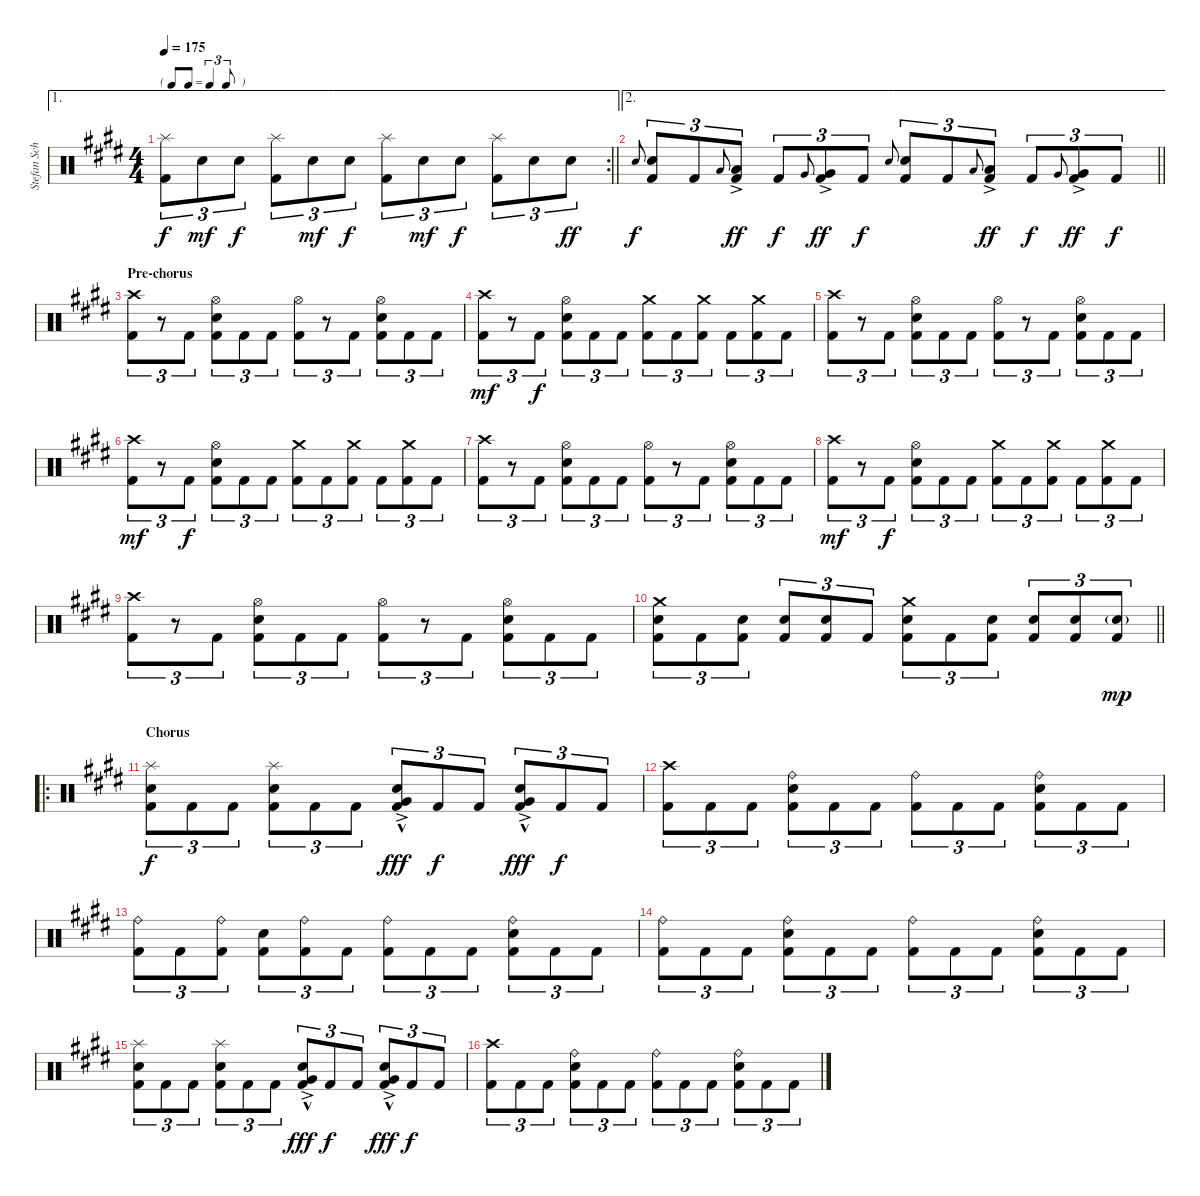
\track ("Stefan Schwarzmann" "Stefan Sch") {instrument percussion}
\staff {score}
\articulation defaults
\ae 1
\rc 2
\ts (4 4)
\tf triplet8th
\tempo 175
\clef neutral
\barLineRight lightlight
\ks c#minor
("Splash (hit)" "Kick (hit) 2").8{tu (3 2) dy f} "Snare (hit) 2".8{tu (3 2) dy mf} "Snare (hit) 2".8{tu (3 2) dy f} ("Splash (hit)" "Kick (hit) 2").8{tu (3 2)} "Snare (hit) 2".8{tu (3 2) dy mf} "Snare (hit) 2".8{tu (3 2) dy f} ("Splash (hit)" "Kick (hit) 2").8{tu (3 2)} "Snare (hit) 2".8{tu (3 2) dy mf} "Snare (hit) 2".8{tu (3 2) dy f} ("Splash (hit)" "Kick (hit) 2").8{tu (3 2)} "Snare (hit) 2".8{tu (3 2)} "Snare (hit) 2".8{tu (3 2) dy ff} |
\ae 2
\barLineRight lightlight "Snare (hit) 2".8{gr onbeat dy f}
("Snare (hit) 2" "Kick (hit) 2").8{tu (3 2)} "Kick (hit) 2".8{tu (3 2)} "Low Tom (hit)".8{gr onbeat} ("Low Tom (hit)"{ac} "Kick (hit) 2").8{tu (3 2) dy ff} "Kick (hit) 2".8{tu (3 2) dy f} "Very Low Tom (hit)".8{gr onbeat} ("Very Low Tom (hit)"{ac} "Kick (hit) 2").8{tu (3 2) dy ff} "Kick (hit) 2".8{tu (3 2) dy f} "Snare (hit) 2".8{gr onbeat} ("Snare (hit) 2" "Kick (hit) 2").8{tu (3 2)} "Kick (hit) 2".8{tu (3 2)} "Low Tom (hit)".8{gr onbeat} ("Low Tom (hit)"{ac} "Kick (hit) 2").8{tu (3 2) dy ff} "Kick (hit) 2".8{tu (3 2) dy f} "Very Low Tom (hit)".8{gr onbeat} ("Very Low Tom (hit)"{ac} "Kick (hit) 2").8{tu (3 2) dy ff} "Kick (hit) 2".8{tu (3 2) dy f} |
\section ("" "Pre-chorus")
("Crash high (hit)" "Kick (hit) 2").8{tu (3 2)} r.8{tu (3 2)} "Kick (hit) 2".8{tu (3 2)} ("Hi-Hat (open)" "Snare (hit) 2" "Kick (hit) 2").8{tu (3 2)} "Kick (hit) 2".8{tu (3 2)} "Kick (hit) 2".8{tu (3 2)} ("Hi-Hat (open)" "Kick (hit) 2").8{tu (3 2)} r.8{tu (3 2)} "Kick (hit) 2".8{tu (3 2)} ("Hi-Hat (open)" "Snare (hit) 2" "Kick (hit) 2").8{tu (3 2)} "Kick (hit) 2".8{tu (3 2)} "Kick (hit) 2".8{tu (3 2)} |
("Crash high (hit)" "Kick (hit) 2").8{tu (3 2) dy mf} r.8{tu (3 2)} "Kick (hit) 2".8{tu (3 2) dy f} ("Hi-Hat (open)" "Snare (hit) 2" "Kick (hit) 2").8{tu (3 2)} "Kick (hit) 2".8{tu (3 2)} "Kick (hit) 2".8{tu (3 2)} ("Crash medium (hit)" "Kick (hit) 2").8{tu (3 2)} "Kick (hit) 2".8{tu (3 2)} ("Crash medium (hit)" "Kick (hit) 2").8{tu (3 2)} "Kick (hit) 2".8{tu (3 2)} ("Crash medium (hit)" "Kick (hit) 2").8{tu (3 2)} "Kick (hit) 2".8{tu (3 2)} |
("Crash high (hit)" "Kick (hit) 2").8{tu (3 2)} r.8{tu (3 2)} "Kick (hit) 2".8{tu (3 2)} ("Hi-Hat (open)" "Snare (hit) 2" "Kick (hit) 2").8{tu (3 2)} "Kick (hit) 2".8{tu (3 2)} "Kick (hit) 2".8{tu (3 2)} ("Hi-Hat (open)" "Kick (hit) 2").8{tu (3 2)} r.8{tu (3 2)} "Kick (hit) 2".8{tu (3 2)} ("Hi-Hat (open)" "Snare (hit) 2" "Kick (hit) 2").8{tu (3 2)} "Kick (hit) 2".8{tu (3 2)} "Kick (hit) 2".8{tu (3 2)} |
("Crash high (hit)" "Kick (hit) 2").8{tu (3 2) dy mf} r.8{tu (3 2)} "Kick (hit) 2".8{tu (3 2) dy f} ("Hi-Hat (open)" "Snare (hit) 2" "Kick (hit) 2").8{tu (3 2)} "Kick (hit) 2".8{tu (3 2)} "Kick (hit) 2".8{tu (3 2)} ("Crash medium (hit)" "Kick (hit) 2").8{tu (3 2)} "Kick (hit) 2".8{tu (3 2)} ("Crash medium (hit)" "Kick (hit) 2").8{tu (3 2)} "Kick (hit) 2".8{tu (3 2)} ("Crash medium (hit)" "Kick (hit) 2").8{tu (3 2)} "Kick (hit) 2".8{tu (3 2)} |
("Crash high (hit)" "Kick (hit) 2").8{tu (3 2)} r.8{tu (3 2)} "Kick (hit) 2".8{tu (3 2)} ("Hi-Hat (open)" "Snare (hit) 2" "Kick (hit) 2").8{tu (3 2)} "Kick (hit) 2".8{tu (3 2)} "Kick (hit) 2".8{tu (3 2)} ("Hi-Hat (open)" "Kick (hit) 2").8{tu (3 2)} r.8{tu (3 2)} "Kick (hit) 2".8{tu (3 2)} ("Hi-Hat (open)" "Snare (hit) 2" "Kick (hit) 2").8{tu (3 2)} "Kick (hit) 2".8{tu (3 2)} "Kick (hit) 2".8{tu (3 2)} |
("Crash high (hit)" "Kick (hit) 2").8{tu (3 2) dy mf} r.8{tu (3 2)} "Kick (hit) 2".8{tu (3 2) dy f} ("Hi-Hat (open)" "Snare (hit) 2" "Kick (hit) 2").8{tu (3 2)} "Kick (hit) 2".8{tu (3 2)} "Kick (hit) 2".8{tu (3 2)} ("Crash medium (hit)" "Kick (hit) 2").8{tu (3 2)} "Kick (hit) 2".8{tu (3 2)} ("Crash medium (hit)" "Kick (hit) 2").8{tu (3 2)} "Kick (hit) 2".8{tu (3 2)} ("Crash medium (hit)" "Kick (hit) 2").8{tu (3 2)} "Kick (hit) 2".8{tu (3 2)} |
("Crash high (hit)" "Kick (hit) 2").8{tu (3 2)} r.8{tu (3 2)} "Kick (hit) 2".8{tu (3 2)} ("Hi-Hat (open)" "Snare (hit) 2" "Kick (hit) 2").8{tu (3 2)} "Kick (hit) 2".8{tu (3 2)} "Kick (hit) 2".8{tu (3 2)} ("Hi-Hat (open)" "Kick (hit) 2").8{tu (3 2)} r.8{tu (3 2)} "Kick (hit) 2".8{tu (3 2)} ("Hi-Hat (open)" "Snare (hit) 2" "Kick (hit) 2").8{tu (3 2)} "Kick (hit) 2".8{tu (3 2)} "Kick (hit) 2".8{tu (3 2)} |
\barLineRight lightlight
("Crash medium (hit)" "Snare (hit) 2" "Kick (hit) 2").8{tu (3 2)} "Kick (hit) 2".8{tu (3 2)} ("Snare (hit) 2" "Kick (hit) 2").8{tu (3 2)} ("Snare (hit) 2" "Kick (hit) 2").8{tu (3 2)} ("Snare (hit) 2" "Kick (hit) 2").8{tu (3 2)} "Kick (hit) 2".8{tu (3 2)} ("Crash medium (hit)" "Snare (hit) 2" "Kick (hit) 2").8{tu (3 2)} "Kick (hit) 2".8{tu (3 2)} ("Snare (hit) 2" "Kick (hit) 2").8{tu (3 2)} ("Snare (hit) 2" "Kick (hit) 2").8{tu (3 2)} ("Snare (hit) 2" "Kick (hit) 2").8{tu (3 2)} ("Snare (hit) 2"{g} "Kick (hit) 2").8{tu (3 2) dy mp} |
\ro
\section ("" "Chorus")
("Splash (hit)" "Snare (hit) 2" "Kick (hit) 2").8{tu (3 2) dy f} "Kick (hit) 2".8{tu (3 2)} "Kick (hit) 2".8{tu (3 2)} ("Splash (hit)" "Snare (hit) 2" "Kick (hit) 2").8{tu (3 2)} "Kick (hit) 2".8{tu (3 2)} "Kick (hit) 2".8{tu (3 2)} ("Snare (hit) 2"{ac} "Very Low Tom (hit)"{hac} "Kick (hit) 2").8{tu (3 2) dy fff} "Kick (hit) 2".8{tu (3 2) dy f} "Kick (hit) 2".8{tu (3 2)} ("Snare (hit) 2"{ac} "Very Low Tom (hit)"{hac} "Kick (hit) 2").8{tu (3 2) dy fff} "Kick (hit) 2".8{tu (3 2) dy f} "Kick (hit) 2".8{tu (3 2)} |
("Crash high (hit)" "Kick (hit) 2").8{tu (3 2)} "Kick (hit) 2".8{tu (3 2)} "Kick (hit) 2".8{tu (3 2)} ("Ride (bell)" "Snare (hit) 2" "Kick (hit) 2").8{tu (3 2)} "Kick (hit) 2".8{tu (3 2)} "Kick (hit) 2".8{tu (3 2)} ("Ride (bell)" "Kick (hit) 2").8{tu (3 2)} "Kick (hit) 2".8{tu (3 2)} "Kick (hit) 2".8{tu (3 2)} ("Ride (bell)" "Snare (hit) 2" "Kick (hit) 2").8{tu (3 2)} "Kick (hit) 2".8{tu (3 2)} "Kick (hit) 2".8{tu (3 2)} |
("Ride (bell)" "Kick (hit) 2").8{tu (3 2)} "Kick (hit) 2".8{tu (3 2)} ("Ride (bell)" "Kick (hit) 2").8{tu (3 2)} ("Snare (hit) 2" "Kick (hit) 2").8{tu (3 2)} ("Ride (bell)" "Kick (hit) 2").8{tu (3 2)} "Kick (hit) 2".8{tu (3 2)} ("Ride (bell)" "Kick (hit) 2").8{tu (3 2)} "Kick (hit) 2".8{tu (3 2)} "Kick (hit) 2".8{tu (3 2)} ("Ride (bell)" "Snare (hit) 2" "Kick (hit) 2").8{tu (3 2)} "Kick (hit) 2".8{tu (3 2)} "Kick (hit) 2".8{tu (3 2)} |
("Ride (bell)" "Kick (hit) 2").8{tu (3 2)} "Kick (hit) 2".8{tu (3 2)} "Kick (hit) 2".8{tu (3 2)} ("Ride (bell)" "Snare (hit) 2" "Kick (hit) 2").8{tu (3 2)} "Kick (hit) 2".8{tu (3 2)} "Kick (hit) 2".8{tu (3 2)} ("Ride (bell)" "Kick (hit) 2").8{tu (3 2)} "Kick (hit) 2".8{tu (3 2)} "Kick (hit) 2".8{tu (3 2)} ("Ride (bell)" "Snare (hit) 2" "Kick (hit) 2").8{tu (3 2)} "Kick (hit) 2".8{tu (3 2)} "Kick (hit) 2".8{tu (3 2)} |
("Splash (hit)" "Snare (hit) 2" "Kick (hit) 2").8{tu (3 2)} "Kick (hit) 2".8{tu (3 2)} "Kick (hit) 2".8{tu (3 2)} ("Splash (hit)" "Snare (hit) 2" "Kick (hit) 2").8{tu (3 2)} "Kick (hit) 2".8{tu (3 2)} "Kick (hit) 2".8{tu (3 2)} ("Snare (hit) 2"{ac} "Very Low Tom (hit)"{hac} "Kick (hit) 2").8{tu (3 2) dy fff} "Kick (hit) 2".8{tu (3 2) dy f} "Kick (hit) 2".8{tu (3 2)} ("Snare (hit) 2"{ac} "Very Low Tom (hit)"{hac} "Kick (hit) 2").8{tu (3 2) dy fff} "Kick (hit) 2".8{tu (3 2) dy f} "Kick (hit) 2".8{tu (3 2)} |
("Crash high (hit)" "Kick (hit) 2").8{tu (3 2)} "Kick (hit) 2".8{tu (3 2)} "Kick (hit) 2".8{tu (3 2)} ("Ride (bell)" "Snare (hit) 2" "Kick (hit) 2").8{tu (3 2)} "Kick (hit) 2".8{tu (3 2)} "Kick (hit) 2".8{tu (3 2)} ("Ride (bell)" "Kick (hit) 2").8{tu (3 2)} "Kick (hit) 2".8{tu (3 2)} "Kick (hit) 2".8{tu (3 2)} ("Ride (bell)" "Snare (hit) 2" "Kick (hit) 2").8{tu (3 2)} "Kick (hit) 2".8{tu (3 2)} "Kick (hit) 2".8{tu (3 2)}
